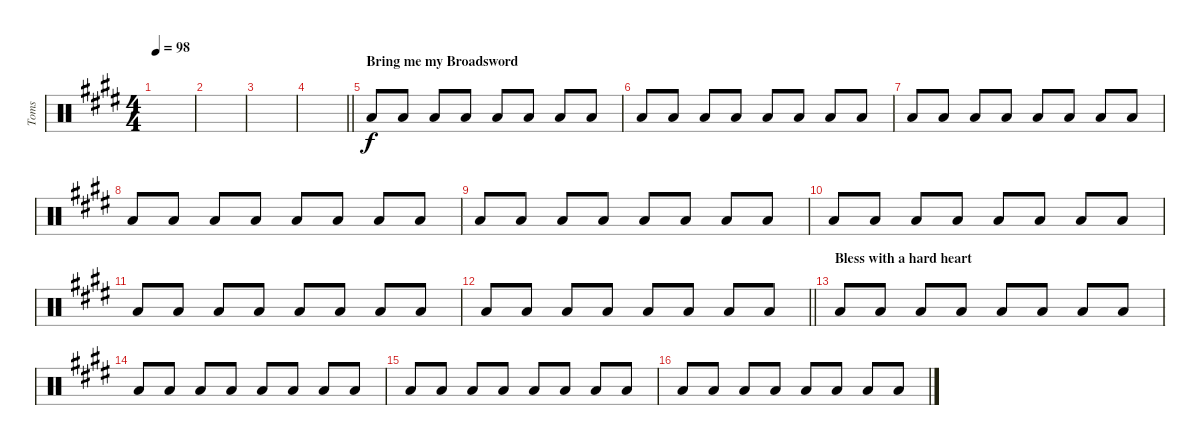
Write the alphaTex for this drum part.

\track ("Toms" "Toms") {instrument percussion}
\staff {score}
\articulation defaults
\ts (4 4)
\tempo 98
\clef neutral
\ks c#minor
|
|
|
\barLineRight lightlight
|
\section ("" "Bring me my Broadsword")
"Low Tom (hit)".8 "Low Floor Tom (hit)".8 "Low Floor Tom (hit)".8 "Low Floor Tom (hit)".8 "Low Tom (hit)".8 "Low Floor Tom (hit)".8 "Low Floor Tom (hit)".8 "Low Floor Tom (hit)".8 |
"Low Tom (hit)".8 "Low Floor Tom (hit)".8 "Low Floor Tom (hit)".8 "Low Floor Tom (hit)".8 "Low Tom (hit)".8 "Low Floor Tom (hit)".8 "Low Floor Tom (hit)".8 "Low Floor Tom (hit)".8 |
"Low Tom (hit)".8 "Low Floor Tom (hit)".8 "Low Floor Tom (hit)".8 "Low Floor Tom (hit)".8 "Low Tom (hit)".8 "Low Floor Tom (hit)".8 "Low Floor Tom (hit)".8 "Low Floor Tom (hit)".8 |
"Low Tom (hit)".8 "Low Floor Tom (hit)".8 "Low Floor Tom (hit)".8 "Low Floor Tom (hit)".8 "Low Tom (hit)".8 "Low Floor Tom (hit)".8 "Low Floor Tom (hit)".8 "Low Floor Tom (hit)".8 |
"Low Tom (hit)".8 "Low Floor Tom (hit)".8 "Low Floor Tom (hit)".8 "Low Floor Tom (hit)".8 "Low Tom (hit)".8 "Low Floor Tom (hit)".8 "Low Floor Tom (hit)".8 "Low Floor Tom (hit)".8 |
"Low Tom (hit)".8 "Low Floor Tom (hit)".8 "Low Floor Tom (hit)".8 "Low Floor Tom (hit)".8 "Low Tom (hit)".8 "Low Floor Tom (hit)".8 "Low Floor Tom (hit)".8 "Low Floor Tom (hit)".8 |
"Low Tom (hit)".8 "Low Floor Tom (hit)".8 "Low Floor Tom (hit)".8 "Low Floor Tom (hit)".8 "Low Tom (hit)".8 "Low Floor Tom (hit)".8 "Low Floor Tom (hit)".8 "Low Floor Tom (hit)".8 |
\barLineRight lightlight "Low Tom (hit)".8 "Low Floor Tom (hit)".8 "Low Floor Tom (hit)".8 "Low Floor Tom (hit)".8 "Low Tom (hit)".8 "Low Floor Tom (hit)".8 "Low Floor Tom (hit)".8 "Low Floor Tom (hit)".8
|
\section ("" "Bless with a hard heart")
"Low Tom (hit)".8 "Low Floor Tom (hit)".8 "Low Floor Tom (hit)".8 "Low Floor Tom (hit)".8 "Low Tom (hit)".8 "Low Floor Tom (hit)".8 "Low Floor Tom (hit)".8 "Low Floor Tom (hit)".8 |
"Low Tom (hit)".8 "Low Floor Tom (hit)".8 "Low Floor Tom (hit)".8 "Low Floor Tom (hit)".8 "Low Tom (hit)".8 "Low Floor Tom (hit)".8 "Low Floor Tom (hit)".8 "Low Floor Tom (hit)".8 |
"Low Tom (hit)".8 "Low Floor Tom (hit)".8 "Low Floor Tom (hit)".8 "Low Floor Tom (hit)".8 "Low Tom (hit)".8 "Low Floor Tom (hit)".8 "Low Floor Tom (hit)".8 "Low Floor Tom (hit)".8 |
"Low Tom (hit)".8 "Low Floor Tom (hit)".8 "Low Floor Tom (hit)".8 "Low Floor Tom (hit)".8 "Low Tom (hit)".8 "Low Floor Tom (hit)".8 "Low Floor Tom (hit)".8 "Low Floor Tom (hit)".8
